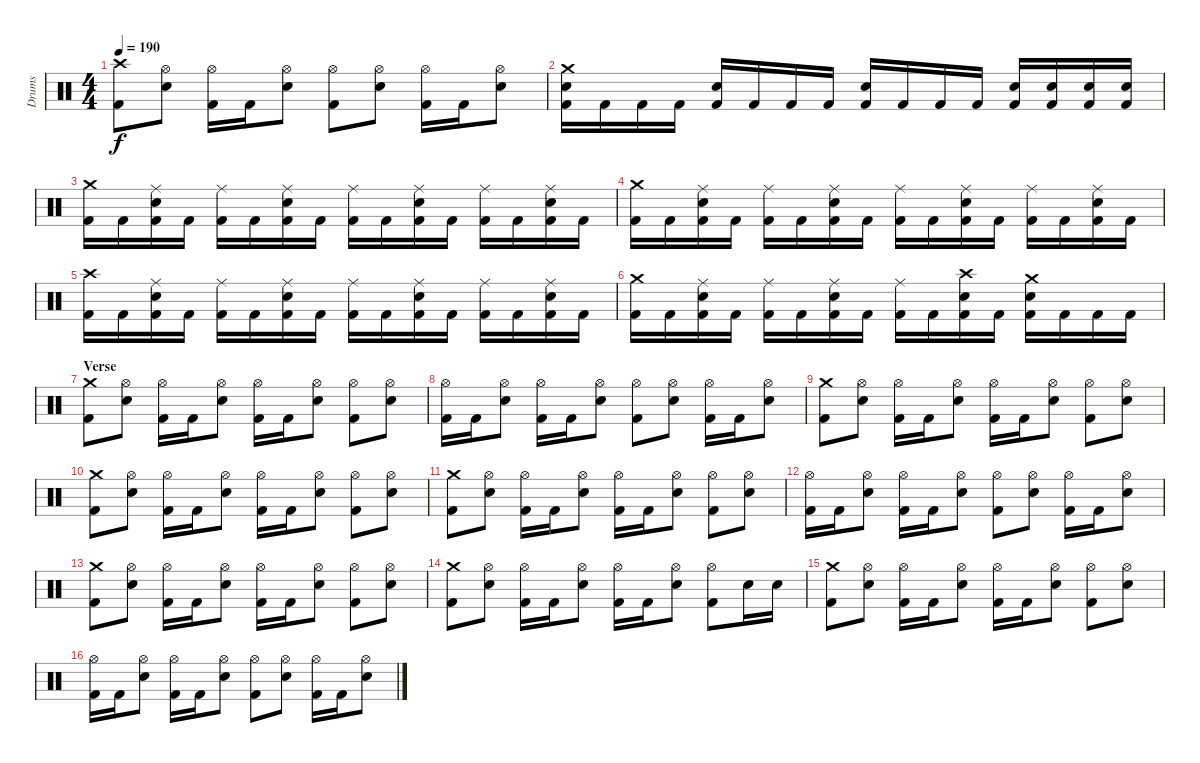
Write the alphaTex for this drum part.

\track ("Drums" "Drums") {instrument percussion}
\staff {score}
\articulation defaults
\ts (4 4)
\tempo 190
\clef neutral
\ks c
("Crash high (hit)" "Kick (hit) 2").8{dy f} ("Hi-Hat (open)" "Snare (hit) 2").8 ("Hi-Hat (open)" "Kick (hit) 2").16 "Kick (hit) 2".16 ("Hi-Hat (open)" "Snare (hit) 2").8 ("Hi-Hat (open)" "Kick (hit) 2").8 ("Hi-Hat (open)" "Snare (hit) 2").8 ("Hi-Hat (open)" "Kick (hit) 2").16 "Kick (hit) 2".16 ("Hi-Hat (open)" "Snare (hit) 2").8 |
("Crash medium (hit)" "Snare (hit) 2" "Kick (hit) 2").16 "Kick (hit) 2".16 "Kick (hit) 2".16 "Kick (hit) 2".16 ("Snare (hit) 2" "Kick (hit) 2").16 "Kick (hit) 2".16 "Kick (hit) 2".16 "Kick (hit) 2".16 ("Snare (hit) 2" "Kick (hit) 2").16 "Kick (hit) 2".16 "Kick (hit) 2".16 "Kick (hit) 2".16 ("Snare (hit) 2" "Kick (hit) 2").16 ("Snare (hit) 2" "Kick (hit) 2").16 ("Snare (hit) 2" "Kick (hit) 2").16 ("Snare (hit) 2" "Kick (hit) 2").16 |
("Crash medium (hit)" "Kick (hit) 2").16 "Kick (hit) 2".16 ("Ride (middle)" "Snare (hit) 2" "Kick (hit) 2").16 "Kick (hit) 2".16 ("Ride (middle)" "Kick (hit) 2").16 "Kick (hit) 2".16 ("Ride (middle)" "Snare (hit) 2" "Kick (hit) 2").16 "Kick (hit) 2".16 ("Ride (middle)" "Kick (hit) 2").16 "Kick (hit) 2".16 ("Ride (middle)" "Snare (hit) 2" "Kick (hit) 2").16 "Kick (hit) 2".16 ("Ride (middle)" "Kick (hit) 2").16 "Kick (hit) 2".16 ("Ride (middle)" "Snare (hit) 2" "Kick (hit) 2").16 "Kick (hit) 2".16 |
("Crash medium (hit)" "Kick (hit) 2").16 "Kick (hit) 2".16 ("Ride (middle)" "Snare (hit) 2" "Kick (hit) 2").16 "Kick (hit) 2".16 ("Ride (middle)" "Kick (hit) 2").16 "Kick (hit) 2".16 ("Ride (middle)" "Snare (hit) 2" "Kick (hit) 2").16 "Kick (hit) 2".16 ("Ride (middle)" "Kick (hit) 2").16 "Kick (hit) 2".16 ("Ride (middle)" "Snare (hit) 2" "Kick (hit) 2").16 "Kick (hit) 2".16 ("Ride (middle)" "Kick (hit) 2").16 "Kick (hit) 2".16 ("Ride (middle)" "Snare (hit) 2" "Kick (hit) 2").16 "Kick (hit) 2".16 |
("Crash high (hit)" "Kick (hit) 2").16 "Kick (hit) 2".16 ("Ride (middle)" "Snare (hit) 2" "Kick (hit) 2").16 "Kick (hit) 2".16 ("Ride (middle)" "Kick (hit) 2").16 "Kick (hit) 2".16 ("Ride (middle)" "Snare (hit) 2" "Kick (hit) 2").16 "Kick (hit) 2".16 ("Ride (middle)" "Kick (hit) 2").16 "Kick (hit) 2".16 ("Ride (middle)" "Snare (hit) 2" "Kick (hit) 2").16 "Kick (hit) 2".16 ("Ride (middle)" "Kick (hit) 2").16 "Kick (hit) 2".16 ("Ride (middle)" "Snare (hit) 2" "Kick (hit) 2").16 "Kick (hit) 2".16 |
("Crash medium (hit)" "Kick (hit) 2").16 "Kick (hit) 2".16 ("Ride (middle)" "Snare (hit) 2" "Kick (hit) 2").16 "Kick (hit) 2".16 ("Ride (middle)" "Kick (hit) 2").16 "Kick (hit) 2".16 ("Ride (middle)" "Snare (hit) 2" "Kick (hit) 2").16 "Kick (hit) 2".16 ("Ride (middle)" "Kick (hit) 2").16 "Kick (hit) 2".16 ("Crash high (hit)" "Snare (hit) 2" "Kick (hit) 2").16 "Kick (hit) 2".16 ("Crash medium (hit)" "Snare (hit) 2" "Kick (hit) 2").16 "Kick (hit) 2".16 "Kick (hit) 2".16 "Kick (hit) 2".16 |
\section ("" "Verse")
("Crash medium (hit)" "Kick (hit) 2").8 ("Hi-Hat (open)" "Snare (hit) 2").8 ("Hi-Hat (open)" "Kick (hit) 2").16 "Kick (hit) 2".16 ("Hi-Hat (open)" "Snare (hit) 2").8 ("Hi-Hat (open)" "Kick (hit) 2").16 "Kick (hit) 2".16 ("Hi-Hat (open)" "Snare (hit) 2").8 ("Hi-Hat (open)" "Kick (hit) 2").8 ("Hi-Hat (open)" "Snare (hit) 2").8 |
("Hi-Hat (open)" "Kick (hit) 2").16 "Kick (hit) 2".16 ("Hi-Hat (open)" "Snare (hit) 2").8 ("Hi-Hat (open)" "Kick (hit) 2").16 "Kick (hit) 2".16 ("Hi-Hat (open)" "Snare (hit) 2").8 ("Hi-Hat (open)" "Kick (hit) 2").8 ("Hi-Hat (open)" "Snare (hit) 2").8 ("Hi-Hat (open)" "Kick (hit) 2").16 "Kick (hit) 2".16 ("Hi-Hat (open)" "Snare (hit) 2").8 |
("Crash medium (hit)" "Kick (hit) 2").8 ("Hi-Hat (open)" "Snare (hit) 2").8 ("Hi-Hat (open)" "Kick (hit) 2").16 "Kick (hit) 2".16 ("Hi-Hat (open)" "Snare (hit) 2").8 ("Hi-Hat (open)" "Kick (hit) 2").16 "Kick (hit) 2".16 ("Hi-Hat (open)" "Snare (hit) 2").8 ("Hi-Hat (open)" "Kick (hit) 2").8 ("Hi-Hat (open)" "Snare (hit) 2").8 |
("Crash medium (hit)" "Kick (hit) 2").8 ("Hi-Hat (open)" "Snare (hit) 2").8 ("Hi-Hat (open)" "Kick (hit) 2").16 "Kick (hit) 2".16 ("Hi-Hat (open)" "Snare (hit) 2").8 ("Hi-Hat (open)" "Kick (hit) 2").16 "Kick (hit) 2".16 ("Hi-Hat (open)" "Snare (hit) 2").8 ("Hi-Hat (open)" "Kick (hit) 2").8 ("Hi-Hat (open)" "Snare (hit) 2").8 |
("Crash medium (hit)" "Kick (hit) 2").8 ("Hi-Hat (open)" "Snare (hit) 2").8 ("Hi-Hat (open)" "Kick (hit) 2").16 "Kick (hit) 2".16 ("Hi-Hat (open)" "Snare (hit) 2").8 ("Hi-Hat (open)" "Kick (hit) 2").16 "Kick (hit) 2".16 ("Hi-Hat (open)" "Snare (hit) 2").8 ("Hi-Hat (open)" "Kick (hit) 2").8 ("Hi-Hat (open)" "Snare (hit) 2").8 |
("Hi-Hat (open)" "Kick (hit) 2").16 "Kick (hit) 2".16 ("Hi-Hat (open)" "Snare (hit) 2").8 ("Hi-Hat (open)" "Kick (hit) 2").16 "Kick (hit) 2".16 ("Hi-Hat (open)" "Snare (hit) 2").8 ("Hi-Hat (open)" "Kick (hit) 2").8 ("Hi-Hat (open)" "Snare (hit) 2").8 ("Hi-Hat (open)" "Kick (hit) 2").16 "Kick (hit) 2".16 ("Hi-Hat (open)" "Snare (hit) 2").8 |
("Crash medium (hit)" "Kick (hit) 2").8 ("Hi-Hat (open)" "Snare (hit) 2").8 ("Hi-Hat (open)" "Kick (hit) 2").16 "Kick (hit) 2".16 ("Hi-Hat (open)" "Snare (hit) 2").8 ("Hi-Hat (open)" "Kick (hit) 2").16 "Kick (hit) 2".16 ("Hi-Hat (open)" "Snare (hit) 2").8 ("Hi-Hat (open)" "Kick (hit) 2").8 ("Hi-Hat (open)" "Snare (hit) 2").8 |
("Crash medium (hit)" "Kick (hit) 2").8 ("Hi-Hat (open)" "Snare (hit) 2").8 ("Hi-Hat (open)" "Kick (hit) 2").16 "Kick (hit) 2".16 ("Hi-Hat (open)" "Snare (hit) 2").8 ("Hi-Hat (open)" "Kick (hit) 2").16 "Kick (hit) 2".16 ("Hi-Hat (open)" "Snare (hit) 2").8 ("Hi-Hat (open)" "Kick (hit) 2").8 "Snare (hit) 2".16 "Snare (hit) 2".16 |
("Crash medium (hit)" "Kick (hit) 2").8 ("Hi-Hat (open)" "Snare (hit) 2").8 ("Hi-Hat (open)" "Kick (hit) 2").16 "Kick (hit) 2".16 ("Hi-Hat (open)" "Snare (hit) 2").8 ("Hi-Hat (open)" "Kick (hit) 2").16 "Kick (hit) 2".16 ("Hi-Hat (open)" "Snare (hit) 2").8 ("Hi-Hat (open)" "Kick (hit) 2").8 ("Hi-Hat (open)" "Snare (hit) 2").8 |
("Hi-Hat (open)" "Kick (hit) 2").16 "Kick (hit) 2".16 ("Hi-Hat (open)" "Snare (hit) 2").8 ("Hi-Hat (open)" "Kick (hit) 2").16 "Kick (hit) 2".16 ("Hi-Hat (open)" "Snare (hit) 2").8 ("Hi-Hat (open)" "Kick (hit) 2").8 ("Hi-Hat (open)" "Snare (hit) 2").8 ("Hi-Hat (open)" "Kick (hit) 2").16 "Kick (hit) 2".16 ("Hi-Hat (open)" "Snare (hit) 2").8
